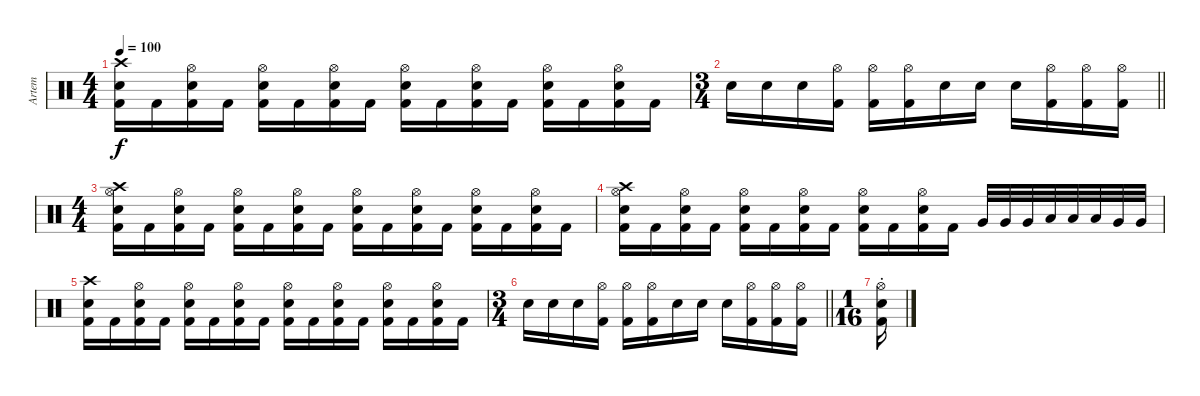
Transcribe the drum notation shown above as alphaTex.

\track ("Artem" "Artem") {instrument percussion}
\staff {score}
\articulation defaults
\ts (4 4)
\tempo 100
\clef neutral
\ks c
("Kick (hit) 2" "Snare (hit) 2" "Crash high (hit)").16{dy f} "Kick (hit) 2".16 ("Kick (hit) 2" "Hi-Hat (open)" "Snare (hit) 2").16 "Kick (hit) 2".16 ("Kick (hit) 2" "Hi-Hat (open)" "Snare (hit) 2").16 "Kick (hit) 2".16 ("Kick (hit) 2" "Hi-Hat (open)" "Snare (hit) 2").16 "Kick (hit) 2".16 ("Kick (hit) 2" "Hi-Hat (open)" "Snare (hit) 2").16 "Kick (hit) 2".16 ("Kick (hit) 2" "Hi-Hat (open)" "Snare (hit) 2").16 "Kick (hit) 2".16 ("Kick (hit) 2" "Hi-Hat (open)" "Snare (hit) 2").16 "Kick (hit) 2".16 ("Kick (hit) 2" "Hi-Hat (open)" "Snare (hit) 2").16 "Kick (hit) 2".16 |
\ts (3 4)
\barLineRight lightlight "Snare (hit) 2".16 "Snare (hit) 2".16 "Snare (hit) 2".16
("Kick (hit) 2" "Hi-Hat (open)").16 ("Kick (hit) 2" "Hi-Hat (open)").16 ("Kick (hit) 2" "Hi-Hat (open)").16 "Snare (hit) 2".16 "Snare (hit) 2".16 "Snare (hit) 2".16 ("Kick (hit) 2" "Hi-Hat (open)").16 ("Kick (hit) 2" "Hi-Hat (open)").16 ("Kick (hit) 2" "Hi-Hat (open)").16 |
\ts (4 4)
("Kick (hit) 2" "Hi-Hat (open)" "Snare (hit) 2" "Crash high (hit)").16 "Kick (hit) 2".16 ("Kick (hit) 2" "Hi-Hat (open)" "Snare (hit) 2").16 "Kick (hit) 2".16 ("Kick (hit) 2" "Hi-Hat (open)" "Snare (hit) 2").16 "Kick (hit) 2".16 ("Kick (hit) 2" "Hi-Hat (open)" "Snare (hit) 2").16 "Kick (hit) 2".16 ("Kick (hit) 2" "Hi-Hat (open)" "Snare (hit) 2").16 "Kick (hit) 2".16 ("Kick (hit) 2" "Hi-Hat (open)" "Snare (hit) 2").16 "Kick (hit) 2".16 ("Kick (hit) 2" "Hi-Hat (open)" "Snare (hit) 2").16 "Kick (hit) 2".16 ("Kick (hit) 2" "Hi-Hat (open)" "Snare (hit) 2").16 "Kick (hit) 2".16 |
("Kick (hit) 2" "Hi-Hat (open)" "Snare (hit) 2" "Crash high (hit)").16 "Kick (hit) 2".16 ("Kick (hit) 2" "Hi-Hat (open)" "Snare (hit) 2").16 "Kick (hit) 2".16 ("Kick (hit) 2" "Hi-Hat (open)" "Snare (hit) 2").16 "Kick (hit) 2".16 ("Kick (hit) 2" "Hi-Hat (open)" "Snare (hit) 2").16 "Kick (hit) 2".16 ("Kick (hit) 2" "Hi-Hat (open)" "Snare (hit) 2").16 "Kick (hit) 2".16 ("Kick (hit) 2" "Hi-Hat (open)" "Snare (hit) 2").16 "Kick (hit) 2".16 "Very Low Tom (hit)".32 "Very Low Tom (hit)".32 "Very Low Tom (hit)".32 "Low Floor Tom (hit)".32 "Low Floor Tom (hit)".32 "Low Floor Tom (hit)".32 "Very Low Tom (hit)".32 "Very Low Tom (hit)".32 |
("Kick (hit) 2" "Snare (hit) 2" "Crash high (hit)").16 "Kick (hit) 2".16 ("Kick (hit) 2" "Hi-Hat (open)" "Snare (hit) 2").16 "Kick (hit) 2".16 ("Kick (hit) 2" "Hi-Hat (open)" "Snare (hit) 2").16 "Kick (hit) 2".16 ("Kick (hit) 2" "Hi-Hat (open)" "Snare (hit) 2").16 "Kick (hit) 2".16 ("Kick (hit) 2" "Hi-Hat (open)" "Snare (hit) 2").16 "Kick (hit) 2".16 ("Kick (hit) 2" "Hi-Hat (open)" "Snare (hit) 2").16 "Kick (hit) 2".16 ("Kick (hit) 2" "Hi-Hat (open)" "Snare (hit) 2").16 "Kick (hit) 2".16 ("Kick (hit) 2" "Hi-Hat (open)" "Snare (hit) 2").16 "Kick (hit) 2".16 |
\ts (3 4)
\barLineRight lightlight "Snare (hit) 2".16 "Snare (hit) 2".16 "Snare (hit) 2".16
("Kick (hit) 2" "Hi-Hat (open)").16 ("Kick (hit) 2" "Hi-Hat (open)").16 ("Kick (hit) 2" "Hi-Hat (open)").16 "Snare (hit) 2".16 "Snare (hit) 2".16 "Snare (hit) 2".16 ("Kick (hit) 2" "Hi-Hat (open)").16 ("Kick (hit) 2" "Hi-Hat (open)").16 ("Kick (hit) 2" "Hi-Hat (open)").16 |
\ts (1 16)
("Kick (hit) 2"{st} "Hi-Hat (open)"{st} "Snare (hit) 2"{st}).16
